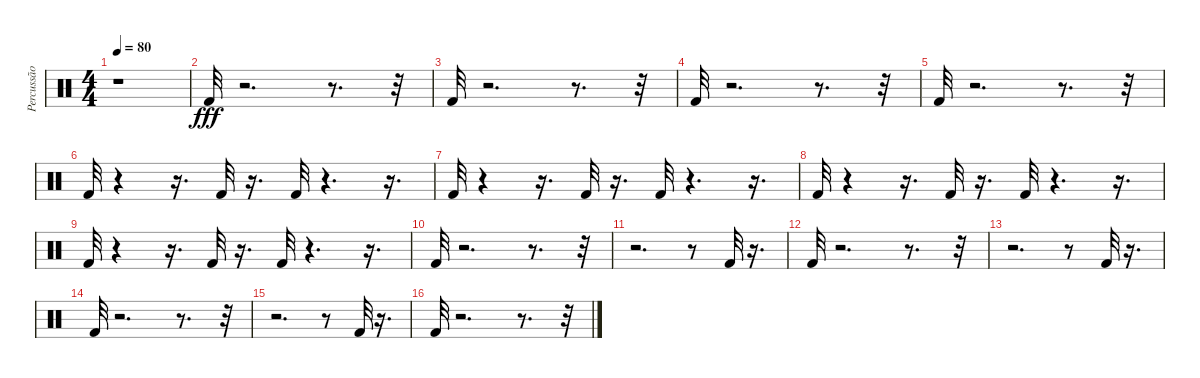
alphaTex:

\track ("Percussão" "Percussão") {instrument percussion}
\staff {score}
\articulation defaults
\ts (4 4)
\tempo 80
\clef neutral
\ks c
r.1{dy fff} |
"Kick (hit) 2".32 r.2{d} r.8{d} r.32 |
"Kick (hit) 2".32 r.2{d} r.8{d} r.32 |
"Kick (hit) 2".32 r.2{d} r.8{d} r.32 |
"Kick (hit) 2".32 r.2{d} r.8{d} r.32 |
"Kick (hit) 2".32 r.4 r.16{d} "Kick (hit) 2".32 r.16{d} "Kick (hit) 2".32 r.4{d} r.16{d} |
"Kick (hit) 2".32 r.4 r.16{d} "Kick (hit) 2".32 r.16{d} "Kick (hit) 2".32 r.4{d} r.16{d} |
"Kick (hit) 2".32 r.4 r.16{d} "Kick (hit) 2".32 r.16{d} "Kick (hit) 2".32 r.4{d} r.16{d} |
"Kick (hit) 2".32 r.4 r.16{d} "Kick (hit) 2".32 r.16{d} "Kick (hit) 2".32 r.4{d} r.16{d} |
"Kick (hit) 2".32 r.2{d} r.8{d} r.32 |
r.2{d} r.8 "Kick (hit) 2".32 r.16{d} |
"Kick (hit) 2".32 r.2{d} r.8{d} r.32 |
r.2{d} r.8 "Kick (hit) 2".32 r.16{d} |
"Kick (hit) 2".32 r.2{d} r.8{d} r.32 |
r.2{d} r.8 "Kick (hit) 2".32 r.16{d} |
"Kick (hit) 2".32 r.2{d} r.8{d} r.32
